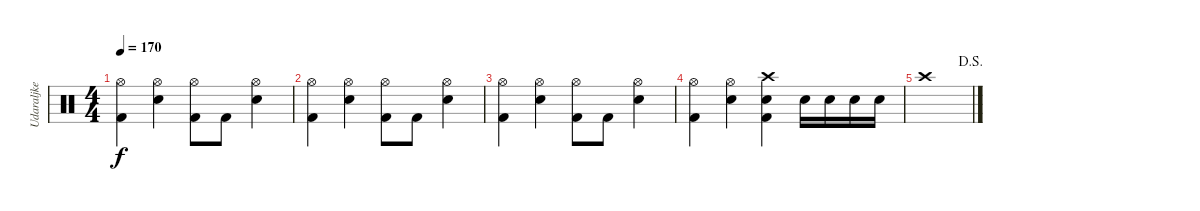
\track ("Udaraljke" "Udaraljke") {instrument percussion}
\staff {score}
\articulation defaults
\ts (4 4)
\tempo 170
\clef neutral
\ks c
("Hi-Hat (open)" "Kick (hit) 2").4{dy f} ("Hi-Hat (open)" "Snare (hit) 2").4 ("Hi-Hat (open)" "Kick (hit) 2").8 "Kick (hit) 2".8 ("Hi-Hat (open)" "Snare (hit) 2").4 |
("Hi-Hat (open)" "Kick (hit) 2").4 ("Hi-Hat (open)" "Snare (hit) 2").4 ("Hi-Hat (open)" "Kick (hit) 2").8 "Kick (hit) 2".8 ("Hi-Hat (open)" "Snare (hit) 2").4 |
("Hi-Hat (open)" "Kick (hit) 2").4 ("Hi-Hat (open)" "Snare (hit) 2").4 ("Hi-Hat (open)" "Kick (hit) 2").8 "Kick (hit) 2".8 ("Hi-Hat (open)" "Snare (hit) 2").4 |
("Hi-Hat (open)" "Kick (hit) 2").4 ("Hi-Hat (open)" "Snare (hit) 2").4 ("Crash high (hit)" "Snare (hit) 2" "Kick (hit) 2").4 "Snare (hit) 2".16 "Snare (hit) 2".16 "Snare (hit) 2".16 "Snare (hit) 2".16 |
\jump dalsegno "Crash high (hit)".1
